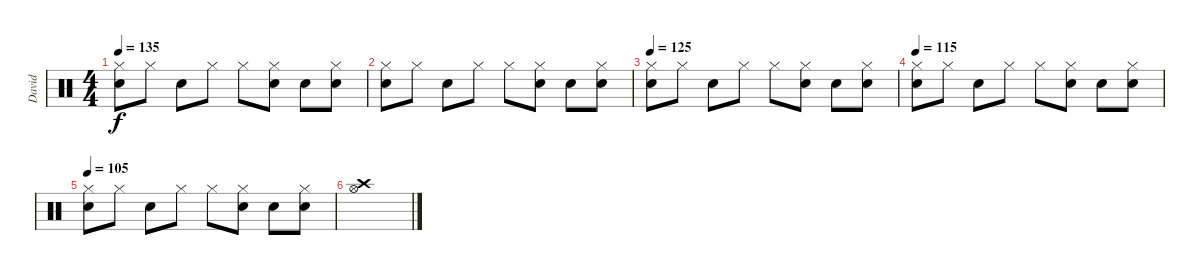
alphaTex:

\track ("David" "David") {instrument percussion}
\staff {score}
\articulation defaults
\ts (4 4)
\tempo 135
\clef neutral
\ks c
("Hi-Hat (closed)" "Electric Snare (hit)").8{dy f} "Hi-Hat (closed)".8 "Snare (hit) 2".8 "Hi-Hat (closed)".8 "Hi-Hat (closed)".8 ("Hi-Hat (closed)" "Electric Snare (hit)").8 "Snare (hit) 2".8 ("Hi-Hat (closed)" "Electric Snare (hit)").8 |
("Hi-Hat (closed)" "Electric Snare (hit)").8 "Hi-Hat (closed)".8 "Snare (hit) 2".8 "Hi-Hat (closed)".8 "Hi-Hat (closed)".8 ("Hi-Hat (closed)" "Electric Snare (hit)").8 "Snare (hit) 2".8 ("Hi-Hat (closed)" "Electric Snare (hit)").8 |
\tempo 125
("Hi-Hat (closed)" "Electric Snare (hit)").8 "Hi-Hat (closed)".8 "Snare (hit) 2".8 "Hi-Hat (closed)".8 "Hi-Hat (closed)".8 ("Hi-Hat (closed)" "Electric Snare (hit)").8 "Snare (hit) 2".8 ("Hi-Hat (closed)" "Electric Snare (hit)").8 |
\tempo 115
("Hi-Hat (closed)" "Electric Snare (hit)").8 "Hi-Hat (closed)".8 "Snare (hit) 2".8 "Hi-Hat (closed)".8 "Hi-Hat (closed)".8 ("Hi-Hat (closed)" "Electric Snare (hit)").8 "Snare (hit) 2".8 ("Hi-Hat (closed)" "Electric Snare (hit)").8 |
\tempo 105
("Hi-Hat (closed)" "Electric Snare (hit)").8 "Hi-Hat (closed)".8 "Snare (hit) 2".8 "Hi-Hat (closed)".8 "Hi-Hat (closed)".8 ("Hi-Hat (closed)" "Electric Snare (hit)").8 "Snare (hit) 2".8 ("Hi-Hat (closed)" "Electric Snare (hit)").8 |
("Crash high (hit)" "Hi-Hat (open)").1
